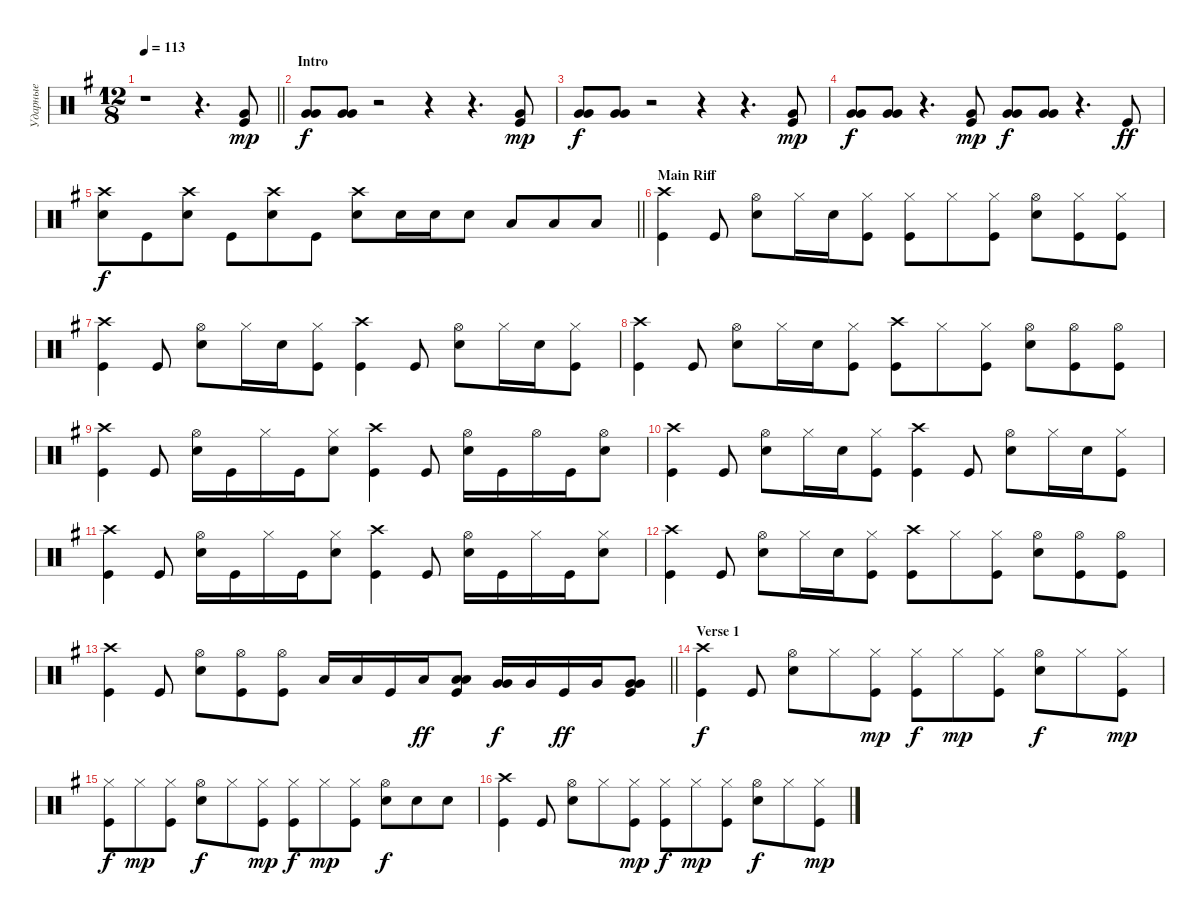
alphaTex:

\track ("Ударные" "Ударные") {instrument percussion}
\staff {score}
\articulation defaults
\ts (12 8)
\tempo 113
\clef neutral
\barLineRight lightlight
\ks eminor
r.1{dy mp} r.4{d} ("Kick (hit)" "Very Low Tom (hit)").8 |
\section ("" "Intro")
("Very Low Tom (hit)" "Very Low Tom (hit)").8{bd 120 dy f} ("Very Low Tom (hit)" "Very Low Tom (hit)").8{bd 120} r.2 r.4 r.4{d} ("Kick (hit)" "Very Low Tom (hit)").8{dy mp} |
("Very Low Tom (hit)" "Very Low Tom (hit)").8{bd 120 dy f} ("Very Low Tom (hit)" "Very Low Tom (hit)").8{bd 120} r.2 r.4 r.4{d} ("Kick (hit)" "Very Low Tom (hit)").8{dy mp} |
("Very Low Tom (hit)" "Very Low Tom (hit)").8{bd 120 dy f} ("Very Low Tom (hit)" "Very Low Tom (hit)").8{bd 120} r.4{d} ("Kick (hit)" "Very Low Tom (hit)").8{dy mp} ("Very Low Tom (hit)" "Very Low Tom (hit)").8{bd 120 dy f} ("Very Low Tom (hit)" "Very Low Tom (hit)").8{bd 120} r.4{d} "Kick (hit)".8{dy ff} |
\barLineRight lightlight
("Snare (hit) 2" "Crash high (hit)").8{dy f} "Kick (hit)".8 ("Snare (hit) 2" "Crash high (hit)").8 "Kick (hit)".8 ("Snare (hit) 2" "Crash high (hit)").8 "Kick (hit)".8 ("Snare (hit) 2" "Crash high (hit)").8 "Snare (hit) 2".16 "Snare (hit) 2".16 "Snare (hit) 2".8 "Low Tom (hit)".8 "Low Tom (hit)".8 "Low Tom (hit)".8 |
\section ("" "Main Riff")
("Kick (hit)" "Crash high (hit)").4 "Kick (hit)".8 ("Snare (hit) 2" "Hi-Hat (open)").8 "Hi-Hat (closed)".16 "Snare (hit) 2".16 ("Kick (hit)" "Hi-Hat (closed)").8 ("Kick (hit)" "Hi-Hat (closed)").8 "Hi-Hat (closed)".8 ("Hi-Hat (closed)" "Kick (hit)").8 ("Snare (hit) 2" "Hi-Hat (open)").8 ("Hi-Hat (closed)" "Kick (hit)").8 ("Hi-Hat (closed)" "Kick (hit)").8 |
("Kick (hit)" "Crash high (hit)").4 "Kick (hit)".8 ("Snare (hit) 2" "Hi-Hat (open)").8 "Hi-Hat (closed)".16 "Snare (hit) 2".16 ("Kick (hit)" "Hi-Hat (closed)").8 ("Kick (hit)" "Crash high (hit)").4 "Kick (hit)".8 ("Snare (hit) 2" "Hi-Hat (open)").8 "Hi-Hat (closed)".16 "Snare (hit) 2".16 ("Kick (hit)" "Hi-Hat (closed)").8 |
("Kick (hit)" "Crash high (hit)").4 "Kick (hit)".8 ("Snare (hit) 2" "Hi-Hat (open)").8 "Hi-Hat (closed)".16 "Snare (hit) 2".16 ("Hi-Hat (closed)" "Kick (hit)").8 ("Kick (hit)" "Crash high (hit)").8 "Hi-Hat (closed)".8 ("Hi-Hat (closed)" "Kick (hit)").8 ("Snare (hit) 2" "Hi-Hat (open)").8 ("Hi-Hat (open)" "Kick (hit)").8 ("Hi-Hat (open)" "Kick (hit)").8 |
("Kick (hit)" "Crash high (hit)").4 "Kick (hit)".8 ("Snare (hit) 2" "Hi-Hat (open)").16 "Kick (hit)".16 "Hi-Hat (closed)".16 "Kick (hit)".16 ("Hi-Hat (closed)" "Snare (hit) 2").8 ("Kick (hit)" "Crash high (hit)").4 "Kick (hit)".8 ("Snare (hit) 2" "Hi-Hat (open)").16 "Kick (hit)".16 "Hi-Hat (open)".16 "Kick (hit)".16 ("Hi-Hat (open)" "Snare (hit) 2").8 |
("Kick (hit)" "Crash high (hit)").4 "Kick (hit)".8 ("Snare (hit) 2" "Hi-Hat (open)").8 "Hi-Hat (closed)".16 "Snare (hit) 2".16 ("Kick (hit)" "Hi-Hat (closed)").8 ("Kick (hit)" "Crash high (hit)").4 "Kick (hit)".8 ("Snare (hit) 2" "Hi-Hat (open)").8 "Hi-Hat (closed)".16 "Snare (hit) 2".16 ("Kick (hit)" "Hi-Hat (closed)").8 |
("Kick (hit)" "Crash high (hit)").4 "Kick (hit)".8 ("Snare (hit) 2" "Hi-Hat (open)").16 "Kick (hit)".16 "Hi-Hat (closed)".16 "Kick (hit)".16 ("Hi-Hat (closed)" "Snare (hit) 2").8 ("Kick (hit)" "Crash high (hit)").4 "Kick (hit)".8 ("Snare (hit) 2" "Hi-Hat (open)").16 "Kick (hit)".16 "Hi-Hat (closed)".16 "Kick (hit)".16 ("Hi-Hat (closed)" "Snare (hit) 2").8 |
("Kick (hit)" "Crash high (hit)").4 "Kick (hit)".8 ("Snare (hit) 2" "Hi-Hat (open)").8 "Hi-Hat (closed)".16 "Snare (hit) 2".16 ("Kick (hit)" "Hi-Hat (closed)").8 ("Kick (hit)" "Crash high (hit)").8 "Hi-Hat (closed)".8 ("Hi-Hat (closed)" "Kick (hit)").8 ("Snare (hit) 2" "Hi-Hat (open)").8 ("Hi-Hat (open)" "Kick (hit)").8 ("Hi-Hat (open)" "Kick (hit)").8 |
\barLineRight lightlight
("Kick (hit)" "Crash high (hit)").4 "Kick (hit)".8 ("Snare (hit) 2" "Hi-Hat (open)").8 ("Kick (hit)" "Hi-Hat (open)").8 ("Kick (hit)" "Hi-Hat (open)").8 "Low Tom (hit)".16 "Low Tom (hit)".16 "Kick (hit)".16 "Low Tom (hit)".16{dy ff} ("Low Tom (hit)" "Low Tom (hit)" "Kick (hit)").8{bd 120} ("Very Low Tom (hit)" "Very Low Tom (hit)").16{bd 120 dy f} "Very Low Tom (hit)".16 "Kick (hit)".16{dy ff} "Very Low Tom (hit)".16 ("Very Low Tom (hit)" "Very Low Tom (hit)" "Kick (hit)").8{bd 120} |
\section ("" "Verse 1")
("Kick (hit)" "Crash high (hit)").4{dy f} "Kick (hit)".8 ("Snare (hit) 2" "Hi-Hat (open)").8 "Hi-Hat (closed)".8 ("Hi-Hat (closed)" "Kick (hit)").8{dy mp} ("Kick (hit)" "Hi-Hat (closed)").8{dy f} "Hi-Hat (closed)".8{dy mp} ("Hi-Hat (closed)" "Kick (hit)").8 ("Snare (hit) 2" "Hi-Hat (open)").8{dy f} "Hi-Hat (closed)".8 ("Hi-Hat (closed)" "Kick (hit)").8{dy mp} |
("Kick (hit)" "Hi-Hat (closed)").8{dy f} "Hi-Hat (closed)".8{dy mp} ("Hi-Hat (closed)" "Kick (hit)").8 ("Snare (hit) 2" "Hi-Hat (open)").8{dy f} "Hi-Hat (closed)".8 ("Hi-Hat (closed)" "Kick (hit)").8{dy mp} ("Kick (hit)" "Hi-Hat (closed)").8{dy f} "Hi-Hat (closed)".8{dy mp} ("Hi-Hat (closed)" "Kick (hit)").8 ("Snare (hit) 2" "Hi-Hat (open)").8{dy f} "Snare (hit) 2".8 "Snare (hit) 2".8 |
("Kick (hit)" "Crash high (hit)").4 "Kick (hit)".8 ("Snare (hit) 2" "Hi-Hat (open)").8 "Hi-Hat (closed)".8 ("Hi-Hat (closed)" "Kick (hit)").8{dy mp} ("Kick (hit)" "Hi-Hat (closed)").8{dy f} "Hi-Hat (closed)".8{dy mp} ("Hi-Hat (closed)" "Kick (hit)").8 ("Snare (hit) 2" "Hi-Hat (open)").8{dy f} "Hi-Hat (closed)".8 ("Hi-Hat (closed)" "Kick (hit)").8{dy mp}
